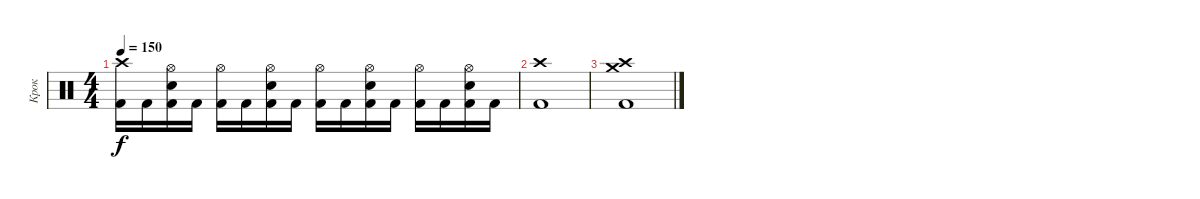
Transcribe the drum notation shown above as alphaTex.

\track ("Крок" "Крок") {instrument percussion}
\staff {score}
\articulation defaults
\ts (4 4)
\tempo 150
\clef neutral
\ks c
("Crash high (hit)" "Kick (hit) 2").16{dy f} "Kick (hit) 2".16 ("Hi-Hat (open)" "Electric Snare (hit)" "Kick (hit) 2").16 "Kick (hit) 2".16 ("Hi-Hat (open)" "Kick (hit) 2").16 "Kick (hit) 2".16 ("Hi-Hat (open)" "Electric Snare (hit)" "Kick (hit) 2").16 "Kick (hit) 2".16 ("Hi-Hat (open)" "Kick (hit) 2").16 "Kick (hit) 2".16 ("Hi-Hat (open)" "Electric Snare (hit)" "Kick (hit) 2").16 "Kick (hit) 2".16 ("Hi-Hat (open)" "Kick (hit) 2").16 "Kick (hit) 2".16 ("Hi-Hat (open)" "Electric Snare (hit)" "Kick (hit) 2").16 "Kick (hit) 2".16 |
("Crash high (hit)" "Kick (hit) 2").1 |
("Crash medium (hit)" "Crash high (hit)" "Kick (hit) 2").1
